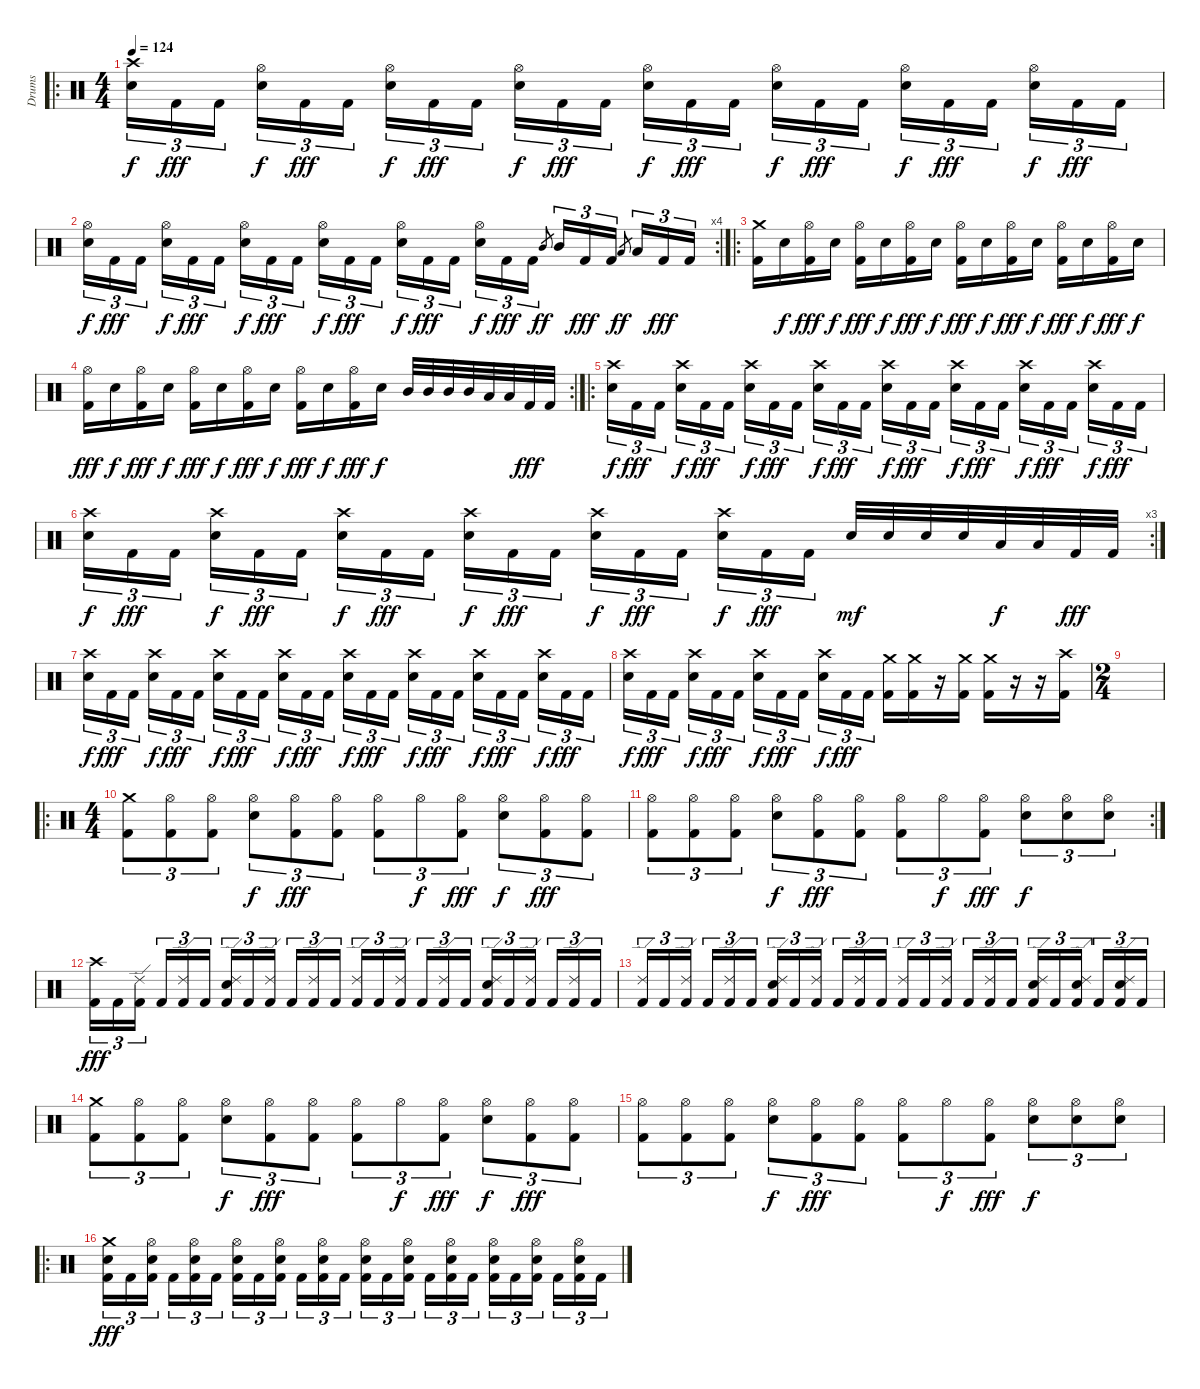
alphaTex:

\track ("Drums" "Drums") {instrument percussion}
\staff {score}
\articulation defaults
\ro
\ts (4 4)
\tempo 124
\clef neutral
\ks c
("Crash high (hit)" "Electric Snare (hit)").16{tu (3 2) dy f} "Kick (hit) 2".16{tu (3 2) dy fff} "Kick (hit) 2".16{tu (3 2)} ("Hi-Hat (open)" "Electric Snare (hit)").16{tu (3 2) dy f} "Kick (hit) 2".16{tu (3 2) dy fff} "Kick (hit) 2".16{tu (3 2)} ("Hi-Hat (open)" "Electric Snare (hit)").16{tu (3 2) dy f} "Kick (hit) 2".16{tu (3 2) dy fff} "Kick (hit) 2".16{tu (3 2)} ("Hi-Hat (open)" "Electric Snare (hit)").16{tu (3 2) dy f} "Kick (hit) 2".16{tu (3 2) dy fff} "Kick (hit) 2".16{tu (3 2)} ("Hi-Hat (open)" "Electric Snare (hit)").16{tu (3 2) dy f} "Kick (hit) 2".16{tu (3 2) dy fff} "Kick (hit) 2".16{tu (3 2)} ("Hi-Hat (open)" "Electric Snare (hit)").16{tu (3 2) dy f} "Kick (hit) 2".16{tu (3 2) dy fff} "Kick (hit) 2".16{tu (3 2)} ("Hi-Hat (open)" "Electric Snare (hit)").16{tu (3 2) dy f} "Kick (hit) 2".16{tu (3 2) dy fff} "Kick (hit) 2".16{tu (3 2)} ("Hi-Hat (open)" "Electric Snare (hit)").16{tu (3 2) dy f} "Kick (hit) 2".16{tu (3 2) dy fff} "Kick (hit) 2".16{tu (3 2)} |
\rc 4
("Hi-Hat (open)" "Electric Snare (hit)").16{tu (3 2) dy f} "Kick (hit) 2".16{tu (3 2) dy fff} "Kick (hit) 2".16{tu (3 2)} ("Hi-Hat (open)" "Electric Snare (hit)").16{tu (3 2) dy f} "Kick (hit) 2".16{tu (3 2) dy fff} "Kick (hit) 2".16{tu (3 2)} ("Hi-Hat (open)" "Electric Snare (hit)").16{tu (3 2) dy f} "Kick (hit) 2".16{tu (3 2) dy fff} "Kick (hit) 2".16{tu (3 2)} ("Hi-Hat (open)" "Electric Snare (hit)").16{tu (3 2) dy f} "Kick (hit) 2".16{tu (3 2) dy fff} "Kick (hit) 2".16{tu (3 2)} ("Hi-Hat (open)" "Electric Snare (hit)").16{tu (3 2) dy f} "Kick (hit) 2".16{tu (3 2) dy fff} "Kick (hit) 2".16{tu (3 2)} ("Hi-Hat (open)" "Electric Snare (hit)").16{tu (3 2) dy f} "Kick (hit) 2".16{tu (3 2) dy fff} "Kick (hit) 2".16{tu (3 2)} "Mid Tom (hit)".8{gr dy ff} "Mid Tom (hit)".16{tu (3 2)} "Kick (hit) 2".16{tu (3 2) dy fff} "Kick (hit) 2".16{tu (3 2)} "Low Tom (hit)".8{gr dy ff} "Low Tom (hit)".16{tu (3 2)} "Kick (hit) 2".16{tu (3 2) dy fff} "Kick (hit) 2".16{tu (3 2)} |
\ro
("Crash medium (hit)" "Kick (hit) 2").16 "Electric Snare (hit)".16{dy f} ("Hi-Hat (open)" "Kick (hit) 2").16{dy fff} "Electric Snare (hit)".16{dy f} ("Hi-Hat (open)" "Kick (hit) 2").16{dy fff} "Electric Snare (hit)".16{dy f} ("Hi-Hat (open)" "Kick (hit) 2").16{dy fff} "Electric Snare (hit)".16{dy f} ("Hi-Hat (open)" "Kick (hit) 2").16{dy fff} "Electric Snare (hit)".16{dy f} ("Hi-Hat (open)" "Kick (hit) 2").16{dy fff} "Electric Snare (hit)".16{dy f} ("Hi-Hat (open)" "Kick (hit) 2").16{dy fff} "Electric Snare (hit)".16{dy f} ("Hi-Hat (open)" "Kick (hit) 2").16{dy fff} "Electric Snare (hit)".16{dy f} |
\rc 2
("Hi-Hat (open)" "Kick (hit) 2").16{dy fff} "Electric Snare (hit)".16{dy f} ("Hi-Hat (open)" "Kick (hit) 2").16{dy fff} "Electric Snare (hit)".16{dy f} ("Hi-Hat (open)" "Kick (hit) 2").16{dy fff} "Electric Snare (hit)".16{dy f} ("Hi-Hat (open)" "Kick (hit) 2").16{dy fff} "Electric Snare (hit)".16{dy f} ("Hi-Hat (open)" "Kick (hit) 2").16{dy fff} "Electric Snare (hit)".16{dy f} ("Hi-Hat (open)" "Kick (hit) 2").16{dy fff} "Electric Snare (hit)".16{dy f} "Mid Tom (hit)".32 "Mid Tom (hit)".32 "Mid Tom (hit)".32 "Mid Tom (hit)".32 "Low Tom (hit)".32 "Low Tom (hit)".32 "Kick (hit) 2".32{dy fff} "Kick (hit) 2".32 |
\ro
("Crash high (hit)" "Electric Snare (hit)").16{tu (3 2) dy f} "Kick (hit) 2".16{tu (3 2) dy fff} "Kick (hit) 2".16{tu (3 2)} ("Crash high (hit)" "Electric Snare (hit)").16{tu (3 2) dy f} "Kick (hit) 2".16{tu (3 2) dy fff} "Kick (hit) 2".16{tu (3 2)} ("Crash high (hit)" "Electric Snare (hit)").16{tu (3 2) dy f} "Kick (hit) 2".16{tu (3 2) dy fff} "Kick (hit) 2".16{tu (3 2)} ("Crash high (hit)" "Electric Snare (hit)").16{tu (3 2) dy f} "Kick (hit) 2".16{tu (3 2) dy fff} "Kick (hit) 2".16{tu (3 2)} ("Crash high (hit)" "Electric Snare (hit)").16{tu (3 2) dy f} "Kick (hit) 2".16{tu (3 2) dy fff} "Kick (hit) 2".16{tu (3 2)} ("Crash high (hit)" "Electric Snare (hit)").16{tu (3 2) dy f} "Kick (hit) 2".16{tu (3 2) dy fff} "Kick (hit) 2".16{tu (3 2)} ("Crash high (hit)" "Electric Snare (hit)").16{tu (3 2) dy f} "Kick (hit) 2".16{tu (3 2) dy fff} "Kick (hit) 2".16{tu (3 2)} ("Crash high (hit)" "Electric Snare (hit)").16{tu (3 2) dy f} "Kick (hit) 2".16{tu (3 2) dy fff} "Kick (hit) 2".16{tu (3 2)} |
\rc 3
("Crash high (hit)" "Electric Snare (hit)").16{tu (3 2) dy f} "Kick (hit) 2".16{tu (3 2) dy fff} "Kick (hit) 2".16{tu (3 2)} ("Crash high (hit)" "Electric Snare (hit)").16{tu (3 2) dy f} "Kick (hit) 2".16{tu (3 2) dy fff} "Kick (hit) 2".16{tu (3 2)} ("Crash high (hit)" "Electric Snare (hit)").16{tu (3 2) dy f} "Kick (hit) 2".16{tu (3 2) dy fff} "Kick (hit) 2".16{tu (3 2)} ("Crash high (hit)" "Electric Snare (hit)").16{tu (3 2) dy f} "Kick (hit) 2".16{tu (3 2) dy fff} "Kick (hit) 2".16{tu (3 2)} ("Crash high (hit)" "Electric Snare (hit)").16{tu (3 2) dy f} "Kick (hit) 2".16{tu (3 2) dy fff} "Kick (hit) 2".16{tu (3 2)} ("Crash high (hit)" "Electric Snare (hit)").16{tu (3 2) dy f} "Kick (hit) 2".16{tu (3 2) dy fff} "Kick (hit) 2".16{tu (3 2)} "Electric Snare (hit)".32{dy mf} "Electric Snare (hit)".32 "Electric Snare (hit)".32 "Electric Snare (hit)".32 "Low Tom (hit)".32{dy f} "Low Tom (hit)".32 "Kick (hit) 2".32{dy fff} "Kick (hit) 2".32 |
("Crash high (hit)" "Electric Snare (hit)").16{tu (3 2) dy f} "Kick (hit) 2".16{tu (3 2) dy fff} "Kick (hit) 2".16{tu (3 2)} ("Crash high (hit)" "Electric Snare (hit)").16{tu (3 2) dy f} "Kick (hit) 2".16{tu (3 2) dy fff} "Kick (hit) 2".16{tu (3 2)} ("Crash high (hit)" "Electric Snare (hit)").16{tu (3 2) dy f} "Kick (hit) 2".16{tu (3 2) dy fff} "Kick (hit) 2".16{tu (3 2)} ("Crash high (hit)" "Electric Snare (hit)").16{tu (3 2) dy f} "Kick (hit) 2".16{tu (3 2) dy fff} "Kick (hit) 2".16{tu (3 2)} ("Crash high (hit)" "Electric Snare (hit)").16{tu (3 2) dy f} "Kick (hit) 2".16{tu (3 2) dy fff} "Kick (hit) 2".16{tu (3 2)} ("Crash high (hit)" "Electric Snare (hit)").16{tu (3 2) dy f} "Kick (hit) 2".16{tu (3 2) dy fff} "Kick (hit) 2".16{tu (3 2)} ("Crash high (hit)" "Electric Snare (hit)").16{tu (3 2) dy f} "Kick (hit) 2".16{tu (3 2) dy fff} "Kick (hit) 2".16{tu (3 2)} ("Crash high (hit)" "Electric Snare (hit)").16{tu (3 2) dy f} "Kick (hit) 2".16{tu (3 2) dy fff} "Kick (hit) 2".16{tu (3 2)} |
("Crash high (hit)" "Electric Snare (hit)").16{tu (3 2) dy f} "Kick (hit) 2".16{tu (3 2) dy fff} "Kick (hit) 2".16{tu (3 2)} ("Crash high (hit)" "Electric Snare (hit)").16{tu (3 2) dy f} "Kick (hit) 2".16{tu (3 2) dy fff} "Kick (hit) 2".16{tu (3 2)} ("Crash high (hit)" "Electric Snare (hit)").16{tu (3 2) dy f} "Kick (hit) 2".16{tu (3 2) dy fff} "Kick (hit) 2".16{tu (3 2)} ("Crash high (hit)" "Electric Snare (hit)").16{tu (3 2) dy f} "Kick (hit) 2".16{tu (3 2) dy fff} "Kick (hit) 2".16{tu (3 2)} ("Crash medium (hit)" "Kick (hit) 2").16 ("Crash medium (hit)" "Kick (hit) 2").16 r.16 ("Crash medium (hit)" "Kick (hit) 2").16 ("Crash medium (hit)" "Kick (hit) 2").16 r.16 r.16 ("Crash high (hit)" "Kick (hit) 2").16 |
\ts (2 4)
|
\ro
\ts (4 4)
("Crash medium (hit)" "Kick (hit) 2").8{tu (3 2)} ("Hi-Hat (open)" "Kick (hit) 2").8{tu (3 2)} ("Hi-Hat (open)" "Kick (hit) 2").8{tu (3 2)} ("Hi-Hat (open)" "Electric Snare (hit)").8{tu (3 2) dy f} ("Hi-Hat (open)" "Kick (hit) 2").8{tu (3 2) dy fff} ("Hi-Hat (open)" "Kick (hit) 2").8{tu (3 2)} ("Hi-Hat (open)" "Kick (hit) 2").8{tu (3 2)} "Hi-Hat (open)".8{tu (3 2) dy f} ("Hi-Hat (open)" "Kick (hit) 2").8{tu (3 2) dy fff} ("Hi-Hat (open)" "Electric Snare (hit)").8{tu (3 2) dy f} ("Hi-Hat (open)" "Kick (hit) 2").8{tu (3 2) dy fff} ("Hi-Hat (open)" "Kick (hit) 2").8{tu (3 2)} |
\rc 2
("Hi-Hat (open)" "Kick (hit) 2").8{tu (3 2)} ("Hi-Hat (open)" "Kick (hit) 2").8{tu (3 2)} ("Hi-Hat (open)" "Kick (hit) 2").8{tu (3 2)} ("Hi-Hat (open)" "Electric Snare (hit)").8{tu (3 2) dy f} ("Hi-Hat (open)" "Kick (hit) 2").8{tu (3 2) dy fff} ("Hi-Hat (open)" "Kick (hit) 2").8{tu (3 2)} ("Hi-Hat (open)" "Kick (hit) 2").8{tu (3 2)} "Hi-Hat (open)".8{tu (3 2) dy f} ("Hi-Hat (open)" "Kick (hit) 2").8{tu (3 2) dy fff} ("Hi-Hat (open)" "Electric Snare (hit)").8{tu (3 2) dy f} ("Hi-Hat (open)" "Electric Snare (hit)").8{tu (3 2)} ("Hi-Hat (open)" "Electric Snare (hit)").8{tu (3 2)} |
("Crash high (hit)" "Kick (hit) 2").16{tu (3 2) dy fff} "Kick (hit) 2".16{tu (3 2)} ("Ride (edge) 2" "Kick (hit) 2").16{tu (3 2)} "Kick (hit) 2".16{tu (3 2)} ("Ride (edge) 2" "Kick (hit) 2").16{tu (3 2)} "Kick (hit) 2".16{tu (3 2)} ("Ride (edge) 2" "Electric Snare (hit)" "Kick (hit) 2").16{tu (3 2)} "Kick (hit) 2".16{tu (3 2)} ("Ride (edge) 2" "Kick (hit) 2").16{tu (3 2)} "Kick (hit) 2".16{tu (3 2)} ("Ride (edge) 2" "Kick (hit) 2").16{tu (3 2)} "Kick (hit) 2".16{tu (3 2)} ("Ride (edge) 2" "Kick (hit) 2").16{tu (3 2)} "Kick (hit) 2".16{tu (3 2)} ("Ride (edge) 2" "Kick (hit) 2").16{tu (3 2)} "Kick (hit) 2".16{tu (3 2)} ("Ride (edge) 2" "Kick (hit) 2").16{tu (3 2)} "Kick (hit) 2".16{tu (3 2)} ("Ride (edge) 2" "Electric Snare (hit)" "Kick (hit) 2").16{tu (3 2)} "Kick (hit) 2".16{tu (3 2)} ("Ride (edge) 2" "Kick (hit) 2").16{tu (3 2)} "Kick (hit) 2".16{tu (3 2)} ("Ride (edge) 2" "Kick (hit) 2").16{tu (3 2)} "Kick (hit) 2".16{tu (3 2)} |
("Ride (edge) 2" "Kick (hit) 2").16{tu (3 2)} "Kick (hit) 2".16{tu (3 2)} ("Ride (edge) 2" "Kick (hit) 2").16{tu (3 2)} "Kick (hit) 2".16{tu (3 2)} ("Ride (edge) 2" "Kick (hit) 2").16{tu (3 2)} "Kick (hit) 2".16{tu (3 2)} ("Ride (edge) 2" "Electric Snare (hit)" "Kick (hit) 2").16{tu (3 2)} "Kick (hit) 2".16{tu (3 2)} ("Ride (edge) 2" "Kick (hit) 2").16{tu (3 2)} "Kick (hit) 2".16{tu (3 2)} ("Ride (edge) 2" "Kick (hit) 2").16{tu (3 2)} "Kick (hit) 2".16{tu (3 2)} ("Ride (edge) 2" "Kick (hit) 2").16{tu (3 2)} "Kick (hit) 2".16{tu (3 2)} ("Ride (edge) 2" "Kick (hit) 2").16{tu (3 2)} "Kick (hit) 2".16{tu (3 2)} ("Ride (edge) 2" "Kick (hit) 2").16{tu (3 2)} "Kick (hit) 2".16{tu (3 2)} ("Ride (edge) 2" "Electric Snare (hit)" "Kick (hit) 2").16{tu (3 2)} "Kick (hit) 2".16{tu (3 2)} ("Ride (edge) 2" "Electric Snare (hit)" "Kick (hit) 2").16{tu (3 2)} "Kick (hit) 2".16{tu (3 2)} ("Ride (edge) 2" "Electric Snare (hit)" "Kick (hit) 2").16{tu (3 2)} "Kick (hit) 2".16{tu (3 2)} |
("Crash medium (hit)" "Kick (hit) 2").8{tu (3 2)} ("Hi-Hat (open)" "Kick (hit) 2").8{tu (3 2)} ("Hi-Hat (open)" "Kick (hit) 2").8{tu (3 2)} ("Hi-Hat (open)" "Electric Snare (hit)").8{tu (3 2) dy f} ("Hi-Hat (open)" "Kick (hit) 2").8{tu (3 2) dy fff} ("Hi-Hat (open)" "Kick (hit) 2").8{tu (3 2)} ("Hi-Hat (open)" "Kick (hit) 2").8{tu (3 2)} "Hi-Hat (open)".8{tu (3 2) dy f} ("Hi-Hat (open)" "Kick (hit) 2").8{tu (3 2) dy fff} ("Hi-Hat (open)" "Electric Snare (hit)").8{tu (3 2) dy f} ("Hi-Hat (open)" "Kick (hit) 2").8{tu (3 2) dy fff} ("Hi-Hat (open)" "Kick (hit) 2").8{tu (3 2)} |
("Hi-Hat (open)" "Kick (hit) 2").8{tu (3 2)} ("Hi-Hat (open)" "Kick (hit) 2").8{tu (3 2)} ("Hi-Hat (open)" "Kick (hit) 2").8{tu (3 2)} ("Hi-Hat (open)" "Electric Snare (hit)").8{tu (3 2) dy f} ("Hi-Hat (open)" "Kick (hit) 2").8{tu (3 2) dy fff} ("Hi-Hat (open)" "Kick (hit) 2").8{tu (3 2)} ("Hi-Hat (open)" "Kick (hit) 2").8{tu (3 2)} "Hi-Hat (open)".8{tu (3 2) dy f} ("Hi-Hat (open)" "Kick (hit) 2").8{tu (3 2) dy fff} ("Hi-Hat (open)" "Electric Snare (hit)").8{tu (3 2) dy f} ("Hi-Hat (open)" "Electric Snare (hit)").8{tu (3 2)} ("Hi-Hat (open)" "Electric Snare (hit)").8{tu (3 2)} |
\ro
("Crash medium (hit)" "Electric Snare (hit)" "Kick (hit) 2").16{tu (3 2) dy fff} "Kick (hit) 2".16{tu (3 2)} ("Hi-Hat (open)" "Electric Snare (hit)" "Kick (hit) 2").16{tu (3 2)} "Kick (hit) 2".16{tu (3 2)} ("Hi-Hat (open)" "Electric Snare (hit)" "Kick (hit) 2").16{tu (3 2)} "Kick (hit) 2".16{tu (3 2)} ("Hi-Hat (open)" "Electric Snare (hit)" "Kick (hit) 2").16{tu (3 2)} "Kick (hit) 2".16{tu (3 2)} ("Hi-Hat (open)" "Electric Snare (hit)" "Kick (hit) 2").16{tu (3 2)} "Kick (hit) 2".16{tu (3 2)} ("Hi-Hat (open)" "Electric Snare (hit)" "Kick (hit) 2").16{tu (3 2)} "Kick (hit) 2".16{tu (3 2)} ("Hi-Hat (open)" "Electric Snare (hit)" "Kick (hit) 2").16{tu (3 2)} "Kick (hit) 2".16{tu (3 2)} ("Hi-Hat (open)" "Electric Snare (hit)" "Kick (hit) 2").16{tu (3 2)} "Kick (hit) 2".16{tu (3 2)} ("Hi-Hat (open)" "Electric Snare (hit)" "Kick (hit) 2").16{tu (3 2)} "Kick (hit) 2".16{tu (3 2)} ("Hi-Hat (open)" "Electric Snare (hit)" "Kick (hit) 2").16{tu (3 2)} "Kick (hit) 2".16{tu (3 2)} ("Hi-Hat (open)" "Electric Snare (hit)" "Kick (hit) 2").16{tu (3 2)} "Kick (hit) 2".16{tu (3 2)} ("Hi-Hat (open)" "Electric Snare (hit)" "Kick (hit) 2").16{tu (3 2)} "Kick (hit) 2".16{tu (3 2)}
